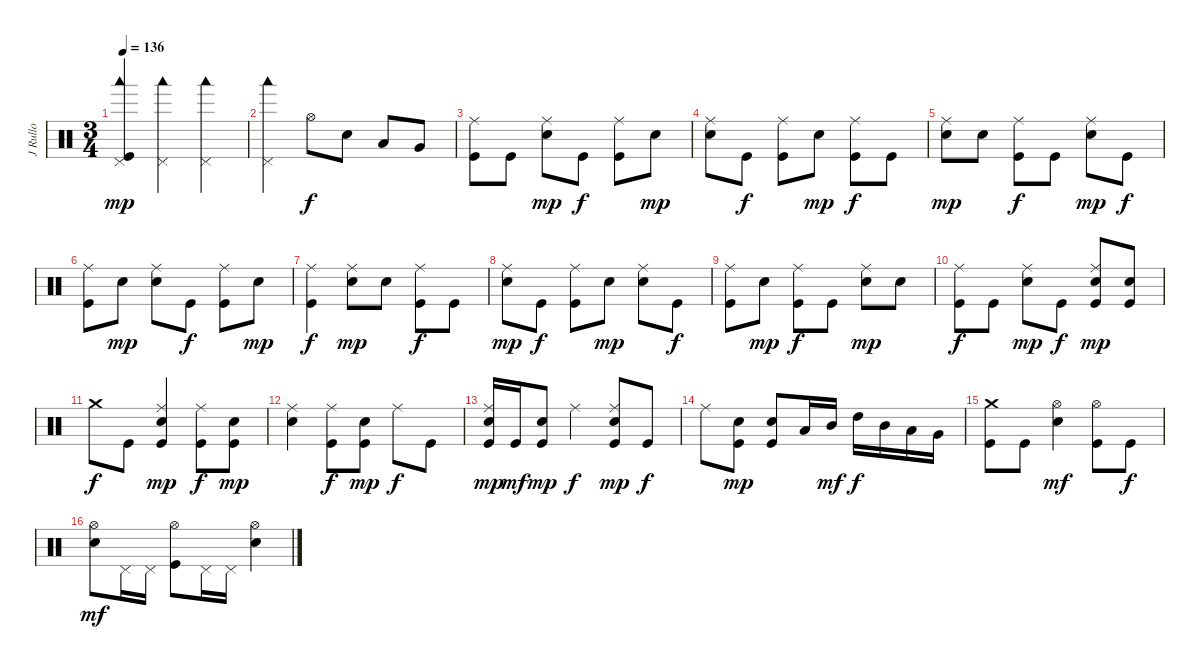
\track ("J Rullo" "J Rullo") {instrument percussion}
\staff {score}
\articulation defaults
\ts (3 4)
\tempo 136
\clef neutral
\ks c
("Pedal Hi-Hat (hit)" "Woodblock low (hit)" "Kick (hit)").4{dy mp} ("Pedal Hi-Hat (hit)" "Woodblock low (hit)").4 ("Pedal Hi-Hat (hit)" "Woodblock low (hit)").4 |
("Pedal Hi-Hat (hit)" "Woodblock low (hit)").4 "Hi-Hat (open)".8{dy f} "Electric Snare (hit)".8 "Low Tom (hit)".8 "Very Low Tom (hit)".8 |
("Ride (middle)" "Kick (hit)").8 "Kick (hit)".8 ("Ride (middle)" "Snare (hit) 2").8{dy mp} "Kick (hit)".8{dy f} ("Ride (middle)" "Kick (hit)").8 "Snare (hit) 2".8{dy mp} |
("Ride (middle)" "Snare (hit) 2").8 "Kick (hit)".8{dy f} ("Ride (middle)" "Kick (hit)").8 "Snare (hit) 2".8{dy mp} ("Ride (middle)" "Kick (hit)").8{dy f} "Kick (hit)".8 |
("Ride (middle)" "Snare (hit) 2").8{dy mp} "Snare (hit) 2".8 ("Ride (middle)" "Kick (hit)").8{dy f} "Kick (hit)".8 ("Ride (middle)" "Snare (hit) 2").8{dy mp} "Kick (hit)".8{dy f} |
("Ride (middle)" "Kick (hit)").8 "Snare (hit) 2".8{dy mp} ("Ride (middle)" "Snare (hit) 2").8 "Kick (hit)".8{dy f} ("Ride (middle)" "Kick (hit)").8 "Snare (hit) 2".8{dy mp} |
("Ride (middle)" "Kick (hit)").4{dy f} ("Ride (middle)" "Snare (hit) 2").8{dy mp} "Snare (hit) 2".8 ("Ride (middle)" "Kick (hit)").8{dy f} "Kick (hit)".8 |
("Ride (middle)" "Snare (hit) 2").8{dy mp} "Kick (hit)".8{dy f} ("Ride (middle)" "Kick (hit)").8 "Snare (hit) 2".8{dy mp} ("Ride (middle)" "Snare (hit) 2").8 "Kick (hit)".8{dy f} |
("Ride (middle)" "Kick (hit)").8 "Snare (hit) 2".8{dy mp} ("Ride (middle)" "Kick (hit)").8{dy f} "Kick (hit)".8 ("Ride (middle)" "Snare (hit) 2").8{dy mp} "Snare (hit) 2".8 |
("Ride (middle)" "Kick (hit)").8{dy f} "Kick (hit)".8 ("Ride (middle)" "Snare (hit) 2").8{dy mp} "Kick (hit)".8{dy f} ("Ride (middle)" "Snare (hit) 2" "Kick (hit)").8{dy mp} ("Snare (hit) 2" "Kick (hit)").8 |
"Crash medium (hit)".8{dy f} "Kick (hit)".8 ("Ride (middle)" "Snare (hit) 2" "Kick (hit)").4{dy mp} ("Ride (middle)" "Kick (hit)").8{dy f} ("Snare (hit) 2" "Kick (hit)").8{dy mp} |
("Ride (middle)" "Snare (hit) 2").4 ("Ride (middle)" "Kick (hit)").8{dy f} ("Snare (hit) 2" "Kick (hit)").8{dy mp} "Ride (middle)".8{dy f} "Kick (hit)".8 |
("Ride (middle)" "Snare (hit) 2" "Kick (hit)").16{dy mp} "Kick (hit)".16{dy mf} ("Snare (hit) 2" "Kick (hit)").8{dy mp} "Ride (middle)".4{dy f} ("Ride (middle)" "Snare (hit) 2" "Kick (hit)").8{dy mp} "Kick (hit)".8{dy f} |
"Ride (middle)".8 ("Snare (hit) 2" "Kick (hit)").8{dy mp} ("Snare (hit) 2" "Kick (hit)").8 "Low Tom (hit)".16 "Mid Tom (hit)".16{dy mf} "High Tom (hit)".16{dy f} "Mid Tom (hit)".16 "Low Tom (hit)".16 "Very Low Tom (hit)".16 |
("Crash medium (hit)" "Kick (hit)").8 "Kick (hit)".8 ("Hi-Hat (open)" "Electric Snare (hit)").4{dy mf} ("Hi-Hat (open)" "Kick (hit)").8 "Kick (hit)".8{dy f} |
("Hi-Hat (open)" "Electric Snare (hit)").8{dy mf} "Pedal Hi-Hat (hit)".16 "Pedal Hi-Hat (hit)".16 ("Hi-Hat (open)" "Kick (hit)").8 "Pedal Hi-Hat (hit)".16 "Pedal Hi-Hat (hit)".16 ("Hi-Hat (open)" "Electric Snare (hit)").4
